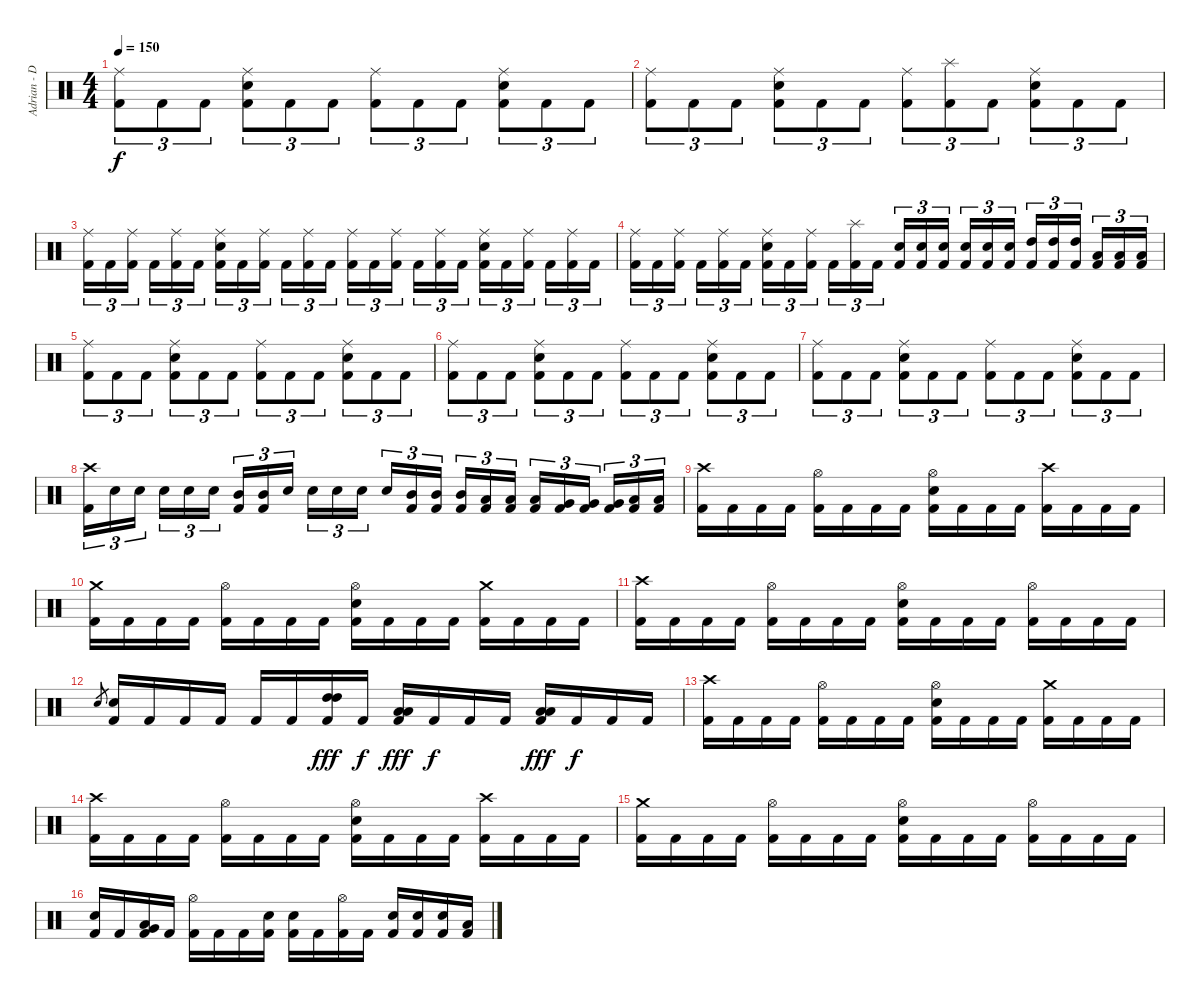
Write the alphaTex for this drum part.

\track ("Adrian - Drums" "Adrian - D") {instrument percussion}
\staff {score}
\articulation defaults
\ts (4 4)
\tempo 150
\clef neutral
\ks c
("Ride (middle)" "Kick (hit) 2").8{tu (3 2) dy f} "Kick (hit) 2".8{tu (3 2)} "Kick (hit) 2".8{tu (3 2)} ("Ride (middle)" "Electric Snare (hit)" "Kick (hit) 2").8{tu (3 2)} "Kick (hit) 2".8{tu (3 2)} "Kick (hit) 2".8{tu (3 2)} ("Ride (middle)" "Kick (hit) 2").8{tu (3 2)} "Kick (hit) 2".8{tu (3 2)} "Kick (hit) 2".8{tu (3 2)} ("Ride (middle)" "Electric Snare (hit)" "Kick (hit) 2").8{tu (3 2)} "Kick (hit) 2".8{tu (3 2)} "Kick (hit) 2".8{tu (3 2)} |
("Ride (middle)" "Kick (hit) 2").8{tu (3 2)} "Kick (hit) 2".8{tu (3 2)} "Kick (hit) 2".8{tu (3 2)} ("Ride (middle)" "Electric Snare (hit)" "Kick (hit) 2").8{tu (3 2)} "Kick (hit) 2".8{tu (3 2)} "Kick (hit) 2".8{tu (3 2)} ("Ride (middle)" "Kick (hit) 2").8{tu (3 2)} ("Splash (hit)" "Kick (hit) 2").8{tu (3 2)} "Kick (hit) 2".8{tu (3 2)} ("Ride (middle)" "Electric Snare (hit)" "Kick (hit) 2").8{tu (3 2)} "Kick (hit) 2".8{tu (3 2)} "Kick (hit) 2".8{tu (3 2)} |
("Ride (middle)" "Kick (hit) 2").16{tu (3 2)} "Kick (hit) 2".16{tu (3 2)} ("Ride (middle)" "Kick (hit) 2").16{tu (3 2)} "Kick (hit) 2".16{tu (3 2)} ("Ride (middle)" "Kick (hit) 2").16{tu (3 2)} "Kick (hit) 2".16{tu (3 2)} ("Ride (middle)" "Electric Snare (hit)" "Kick (hit) 2").16{tu (3 2)} "Kick (hit) 2".16{tu (3 2)} ("Ride (middle)" "Kick (hit) 2").16{tu (3 2)} "Kick (hit) 2".16{tu (3 2)} ("Ride (middle)" "Kick (hit) 2").16{tu (3 2)} "Kick (hit) 2".16{tu (3 2)} ("Ride (middle)" "Kick (hit) 2").16{tu (3 2)} "Kick (hit) 2".16{tu (3 2)} ("Ride (middle)" "Kick (hit) 2").16{tu (3 2)} "Kick (hit) 2".16{tu (3 2)} ("Ride (middle)" "Kick (hit) 2").16{tu (3 2)} "Kick (hit) 2".16{tu (3 2)} ("Ride (middle)" "Electric Snare (hit)" "Kick (hit) 2").16{tu (3 2)} "Kick (hit) 2".16{tu (3 2)} ("Ride (middle)" "Kick (hit) 2").16{tu (3 2)} "Kick (hit) 2".16{tu (3 2)} ("Ride (middle)" "Kick (hit) 2").16{tu (3 2)} "Kick (hit) 2".16{tu (3 2)} |
("Ride (middle)" "Kick (hit) 2").16{tu (3 2)} "Kick (hit) 2".16{tu (3 2)} ("Ride (middle)" "Kick (hit) 2").16{tu (3 2)} "Kick (hit) 2".16{tu (3 2)} ("Ride (middle)" "Kick (hit) 2").16{tu (3 2)} "Kick (hit) 2".16{tu (3 2)} ("Ride (middle)" "Electric Snare (hit)" "Kick (hit) 2").16{tu (3 2)} "Kick (hit) 2".16{tu (3 2)} ("Ride (middle)" "Kick (hit) 2").16{tu (3 2)} "Kick (hit) 2".16{tu (3 2)} ("Splash (hit)" "Kick (hit) 2").16{tu (3 2)} "Kick (hit) 2".16{tu (3 2)} ("Electric Snare (hit)" "Kick (hit) 2").16{tu (3 2)} ("Electric Snare (hit)" "Kick (hit) 2").16{tu (3 2)} ("Electric Snare (hit)" "Kick (hit) 2").16{tu (3 2)} ("Electric Snare (hit)" "Kick (hit) 2").16{tu (3 2)} ("Electric Snare (hit)" "Kick (hit) 2").16{tu (3 2)} ("Electric Snare (hit)" "Kick (hit) 2").16{tu (3 2)} ("High Tom (hit)" "Kick (hit) 2").16{tu (3 2)} ("High Tom (hit)" "Kick (hit) 2").16{tu (3 2)} ("High Tom (hit)" "Kick (hit) 2").16{tu (3 2)} ("Low Tom (hit)" "Kick (hit) 2").16{tu (3 2)} ("Low Tom (hit)" "Kick (hit) 2").16{tu (3 2)} ("Low Tom (hit)" "Kick (hit) 2").16{tu (3 2)} |
("Ride (middle)" "Kick (hit) 2").8{tu (3 2)} "Kick (hit) 2".8{tu (3 2)} "Kick (hit) 2".8{tu (3 2)} ("Ride (middle)" "Electric Snare (hit)" "Kick (hit) 2").8{tu (3 2)} "Kick (hit) 2".8{tu (3 2)} "Kick (hit) 2".8{tu (3 2)} ("Ride (middle)" "Kick (hit) 2").8{tu (3 2)} "Kick (hit) 2".8{tu (3 2)} "Kick (hit) 2".8{tu (3 2)} ("Ride (middle)" "Electric Snare (hit)" "Kick (hit) 2").8{tu (3 2)} "Kick (hit) 2".8{tu (3 2)} "Kick (hit) 2".8{tu (3 2)} |
("Ride (middle)" "Kick (hit) 2").8{tu (3 2)} "Kick (hit) 2".8{tu (3 2)} "Kick (hit) 2".8{tu (3 2)} ("Ride (middle)" "Electric Snare (hit)" "Kick (hit) 2").8{tu (3 2)} "Kick (hit) 2".8{tu (3 2)} "Kick (hit) 2".8{tu (3 2)} ("Ride (middle)" "Kick (hit) 2").8{tu (3 2)} "Kick (hit) 2".8{tu (3 2)} "Kick (hit) 2".8{tu (3 2)} ("Ride (middle)" "Electric Snare (hit)" "Kick (hit) 2").8{tu (3 2)} "Kick (hit) 2".8{tu (3 2)} "Kick (hit) 2".8{tu (3 2)} |
("Ride (middle)" "Kick (hit) 2").8{tu (3 2)} "Kick (hit) 2".8{tu (3 2)} "Kick (hit) 2".8{tu (3 2)} ("Ride (middle)" "Electric Snare (hit)" "Kick (hit) 2").8{tu (3 2)} "Kick (hit) 2".8{tu (3 2)} "Kick (hit) 2".8{tu (3 2)} ("Ride (middle)" "Kick (hit) 2").8{tu (3 2)} "Kick (hit) 2".8{tu (3 2)} "Kick (hit) 2".8{tu (3 2)} ("Ride (middle)" "Electric Snare (hit)" "Kick (hit) 2").8{tu (3 2)} "Kick (hit) 2".8{tu (3 2)} "Kick (hit) 2".8{tu (3 2)} |
("Crash high (hit)" "Kick (hit) 2").16{tu (3 2)} "Electric Snare (hit)".16{tu (3 2)} "Electric Snare (hit)".16{tu (3 2)} "Electric Snare (hit)".16{tu (3 2)} "Electric Snare (hit)".16{tu (3 2)} "Electric Snare (hit)".16{tu (3 2)} ("Mid Tom (hit)" "Kick (hit) 2").16{tu (3 2)} ("Mid Tom (hit)" "Kick (hit) 2").16{tu (3 2)} "Electric Snare (hit)".16{tu (3 2)} "Electric Snare (hit)".16{tu (3 2)} "Electric Snare (hit)".16{tu (3 2)} "Electric Snare (hit)".16{tu (3 2)} "Electric Snare (hit)".16{tu (3 2)} ("Mid Tom (hit)" "Kick (hit) 2").16{tu (3 2)} ("Mid Tom (hit)" "Kick (hit) 2").16{tu (3 2)} ("Mid Tom (hit)" "Kick (hit) 2").16{tu (3 2)} ("Low Tom (hit)" "Kick (hit) 2").16{tu (3 2)} ("Low Tom (hit)" "Kick (hit) 2").16{tu (3 2)} ("Low Tom (hit)" "Kick (hit) 2").16{tu (3 2)} ("Very Low Tom (hit)" "Kick (hit) 2").16{tu (3 2)} ("Very Low Tom (hit)" "Kick (hit) 2").16{tu (3 2)} ("Very Low Tom (hit)" "Kick (hit) 2").16{tu (3 2)} ("Low Floor Tom (hit)" "Kick (hit) 2").16{tu (3 2)} ("Low Floor Tom (hit)" "Kick (hit) 2").16{tu (3 2)} |
("Crash high (hit)" "Kick (hit) 2").16 "Kick (hit) 2".16 "Kick (hit) 2".16 "Kick (hit) 2".16 ("Hi-Hat (open)" "Kick (hit) 2").16 "Kick (hit) 2".16 "Kick (hit) 2".16 "Kick (hit) 2".16 ("Hi-Hat (open)" "Electric Snare (hit)" "Kick (hit) 2").16 "Kick (hit) 2".16 "Kick (hit) 2".16 "Kick (hit) 2".16 ("Crash high (hit)" "Kick (hit) 2").16 "Kick (hit) 2".16 "Kick (hit) 2".16 "Kick (hit) 2".16 |
("Crash medium (hit)" "Kick (hit) 2").16 "Kick (hit) 2".16 "Kick (hit) 2".16 "Kick (hit) 2".16 ("Hi-Hat (open)" "Kick (hit) 2").16 "Kick (hit) 2".16 "Kick (hit) 2".16 "Kick (hit) 2".16 ("Hi-Hat (open)" "Electric Snare (hit)" "Kick (hit) 2").16 "Kick (hit) 2".16 "Kick (hit) 2".16 "Kick (hit) 2".16 ("Crash medium (hit)" "Kick (hit) 2").16 "Kick (hit) 2".16 "Kick (hit) 2".16 "Kick (hit) 2".16 |
("Crash high (hit)" "Kick (hit) 2").16 "Kick (hit) 2".16 "Kick (hit) 2".16 "Kick (hit) 2".16 ("Hi-Hat (open)" "Kick (hit) 2").16 "Kick (hit) 2".16 "Kick (hit) 2".16 "Kick (hit) 2".16 ("Hi-Hat (open)" "Electric Snare (hit)" "Kick (hit) 2").16 "Kick (hit) 2".16 "Kick (hit) 2".16 "Kick (hit) 2".16 ("Hi-Hat (open)" "Kick (hit) 2").16 "Kick (hit) 2".16 "Kick (hit) 2".16 "Kick (hit) 2".16 |
"Electric Snare (hit)".8{gr} ("Electric Snare (hit)" "Kick (hit) 2").16 "Kick (hit) 2".16 "Kick (hit) 2".16 "Kick (hit) 2".16 "Kick (hit) 2".16 "Kick (hit) 2".16 ("High Tom (hit)" "High Tom (hit)" "Kick (hit) 2").16{dy fff} "Kick (hit) 2".16{dy f} ("Low Tom (hit)" "Low Tom (hit)" "Kick (hit) 2").16{dy fff} "Kick (hit) 2".16{dy f} "Kick (hit) 2".16 "Kick (hit) 2".16 ("Low Floor Tom (hit)" "Low Floor Tom (hit)" "Kick (hit) 2").16{dy fff} "Kick (hit) 2".16{dy f} "Kick (hit) 2".16 "Kick (hit) 2".16 |
("Crash high (hit)" "Kick (hit) 2").16 "Kick (hit) 2".16 "Kick (hit) 2".16 "Kick (hit) 2".16 ("Hi-Hat (open)" "Kick (hit) 2").16 "Kick (hit) 2".16 "Kick (hit) 2".16 "Kick (hit) 2".16 ("Hi-Hat (open)" "Electric Snare (hit)" "Kick (hit) 2").16 "Kick (hit) 2".16 "Kick (hit) 2".16 "Kick (hit) 2".16 ("Crash medium (hit)" "Kick (hit) 2").16 "Kick (hit) 2".16 "Kick (hit) 2".16 "Kick (hit) 2".16 |
("Crash high (hit)" "Kick (hit) 2").16 "Kick (hit) 2".16 "Kick (hit) 2".16 "Kick (hit) 2".16 ("Hi-Hat (open)" "Kick (hit) 2").16 "Kick (hit) 2".16 "Kick (hit) 2".16 "Kick (hit) 2".16 ("Hi-Hat (open)" "Electric Snare (hit)" "Kick (hit) 2").16 "Kick (hit) 2".16 "Kick (hit) 2".16 "Kick (hit) 2".16 ("Crash high (hit)" "Kick (hit) 2").16 "Kick (hit) 2".16 "Kick (hit) 2".16 "Kick (hit) 2".16 |
("Crash medium (hit)" "Kick (hit) 2").16 "Kick (hit) 2".16 "Kick (hit) 2".16 "Kick (hit) 2".16 ("Hi-Hat (open)" "Kick (hit) 2").16 "Kick (hit) 2".16 "Kick (hit) 2".16 "Kick (hit) 2".16 ("Hi-Hat (open)" "Electric Snare (hit)" "Kick (hit) 2").16 "Kick (hit) 2".16 "Kick (hit) 2".16 "Kick (hit) 2".16 ("Hi-Hat (open)" "Kick (hit) 2").16 "Kick (hit) 2".16 "Kick (hit) 2".16 "Kick (hit) 2".16 |
("Electric Snare (hit)" "Kick (hit) 2").16 "Kick (hit) 2".16 ("Low Tom (hit)" "Very Low Tom (hit)" "Kick (hit) 2").16 "Kick (hit) 2".16 ("Hi-Hat (open)" "Kick (hit) 2").16 "Kick (hit) 2".16 "Kick (hit) 2".16 ("Electric Snare (hit)" "Kick (hit) 2").16 ("Electric Snare (hit)" "Kick (hit) 2").16 "Kick (hit) 2".16 ("Hi-Hat (open)" "Kick (hit) 2").16 "Kick (hit) 2".16 ("Electric Snare (hit)" "Kick (hit) 2").16 ("Electric Snare (hit)" "Kick (hit) 2").16 ("Electric Snare (hit)" "Kick (hit) 2").16 ("Low Tom (hit)" "Kick (hit) 2").16
